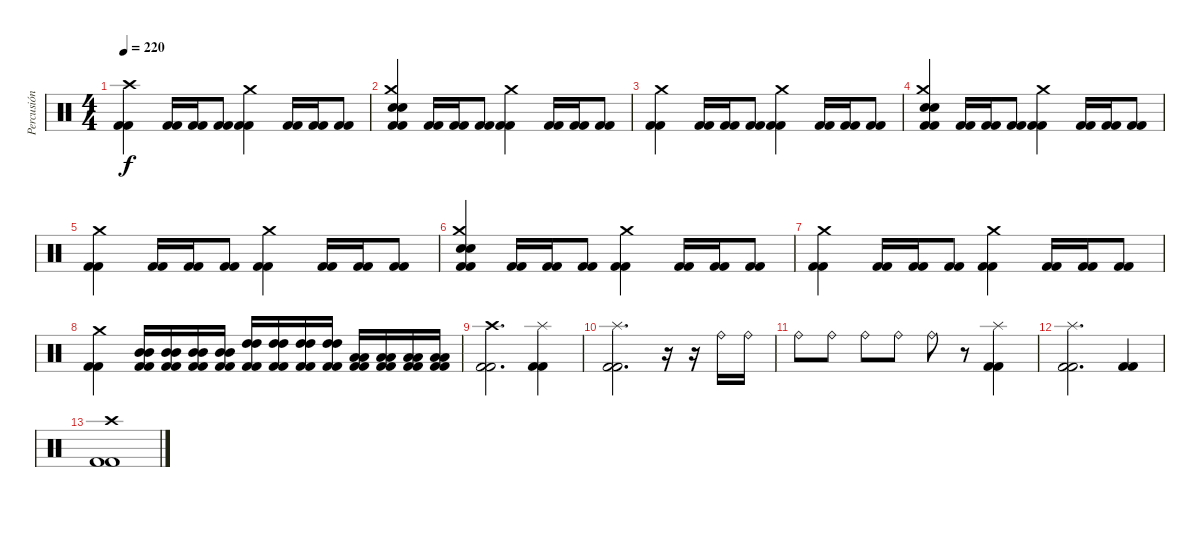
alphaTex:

\track ("Percusión" "Percusión") {instrument percussion}
\staff {score}
\articulation defaults
\ts (4 4)
\tempo 220
\clef neutral
\ks c
("Kick (hit) 2" "Kick (hit) 2" "Crash high (hit)").4{dy f} ("Kick (hit) 2" "Kick (hit) 2").16 ("Kick (hit) 2" "Kick (hit) 2").16 ("Kick (hit) 2" "Kick (hit) 2").8 ("Kick (hit) 2" "Kick (hit) 2" "Crash medium (hit)").4 ("Kick (hit) 2" "Kick (hit) 2").16 ("Kick (hit) 2" "Kick (hit) 2").16 ("Kick (hit) 2" "Kick (hit) 2").8 |
("Kick (hit) 2" "Kick (hit) 2" "Electric Snare (hit)" "Electric Snare (hit)" "Crash medium (hit)").4 ("Kick (hit) 2" "Kick (hit) 2").16 ("Kick (hit) 2" "Kick (hit) 2").16 ("Kick (hit) 2" "Kick (hit) 2").8 ("Kick (hit) 2" "Kick (hit) 2" "Crash medium (hit)").4 ("Kick (hit) 2" "Kick (hit) 2").16 ("Kick (hit) 2" "Kick (hit) 2").16 ("Kick (hit) 2" "Kick (hit) 2").8 |
("Kick (hit) 2" "Kick (hit) 2" "Crash medium (hit)").4 ("Kick (hit) 2" "Kick (hit) 2").16 ("Kick (hit) 2" "Kick (hit) 2").16 ("Kick (hit) 2" "Kick (hit) 2").8 ("Kick (hit) 2" "Kick (hit) 2" "Crash medium (hit)").4 ("Kick (hit) 2" "Kick (hit) 2").16 ("Kick (hit) 2" "Kick (hit) 2").16 ("Kick (hit) 2" "Kick (hit) 2").8 |
("Kick (hit) 2" "Kick (hit) 2" "Electric Snare (hit)" "Electric Snare (hit)" "Crash medium (hit)").4 ("Kick (hit) 2" "Kick (hit) 2").16 ("Kick (hit) 2" "Kick (hit) 2").16 ("Kick (hit) 2" "Kick (hit) 2").8 ("Kick (hit) 2" "Kick (hit) 2" "Crash medium (hit)").4 ("Kick (hit) 2" "Kick (hit) 2").16 ("Kick (hit) 2" "Kick (hit) 2").16 ("Kick (hit) 2" "Kick (hit) 2").8 |
("Kick (hit) 2" "Kick (hit) 2" "Crash medium (hit)").4 ("Kick (hit) 2" "Kick (hit) 2").16 ("Kick (hit) 2" "Kick (hit) 2").16 ("Kick (hit) 2" "Kick (hit) 2").8 ("Kick (hit) 2" "Kick (hit) 2" "Crash medium (hit)").4 ("Kick (hit) 2" "Kick (hit) 2").16 ("Kick (hit) 2" "Kick (hit) 2").16 ("Kick (hit) 2" "Kick (hit) 2").8 |
("Kick (hit) 2" "Kick (hit) 2" "Electric Snare (hit)" "Electric Snare (hit)" "Crash medium (hit)").4 ("Kick (hit) 2" "Kick (hit) 2").16 ("Kick (hit) 2" "Kick (hit) 2").16 ("Kick (hit) 2" "Kick (hit) 2").8 ("Kick (hit) 2" "Kick (hit) 2" "Crash medium (hit)").4 ("Kick (hit) 2" "Kick (hit) 2").16 ("Kick (hit) 2" "Kick (hit) 2").16 ("Kick (hit) 2" "Kick (hit) 2").8 |
("Kick (hit) 2" "Kick (hit) 2" "Crash medium (hit)").4 ("Kick (hit) 2" "Kick (hit) 2").16 ("Kick (hit) 2" "Kick (hit) 2").16 ("Kick (hit) 2" "Kick (hit) 2").8 ("Kick (hit) 2" "Kick (hit) 2" "Crash medium (hit)").4 ("Kick (hit) 2" "Kick (hit) 2").16 ("Kick (hit) 2" "Kick (hit) 2").16 ("Kick (hit) 2" "Kick (hit) 2").8 |
("Kick (hit) 2" "Kick (hit) 2" "Crash medium (hit)").4 ("Kick (hit) 2" "Kick (hit) 2" "Mid Tom (hit)" "Mid Tom (hit)").16 ("Kick (hit) 2" "Kick (hit) 2" "Mid Tom (hit)" "Mid Tom (hit)").16 ("Kick (hit) 2" "Kick (hit) 2" "Mid Tom (hit)" "Mid Tom (hit)").16 ("Kick (hit) 2" "Kick (hit) 2" "Mid Tom (hit)" "Mid Tom (hit)").16 ("Kick (hit) 2" "Kick (hit) 2" "High Tom (hit)" "High Tom (hit)").16 ("Kick (hit) 2" "Kick (hit) 2" "High Tom (hit)" "High Tom (hit)").16 ("Kick (hit) 2" "Kick (hit) 2" "High Tom (hit)" "High Tom (hit)").16 ("Kick (hit) 2" "Kick (hit) 2" "High Tom (hit)" "High Tom (hit)").16 ("Kick (hit) 2" "Kick (hit) 2" "Low Floor Tom (hit)" "Low Floor Tom (hit)").16 ("Kick (hit) 2" "Kick (hit) 2" "Low Floor Tom (hit)" "Low Floor Tom (hit)").16 ("Kick (hit) 2" "Kick (hit) 2" "Low Floor Tom (hit)" "Low Floor Tom (hit)").16 ("Kick (hit) 2" "Kick (hit) 2" "Low Floor Tom (hit)" "Low Floor Tom (hit)").16 |
("Kick (hit) 2" "Kick (hit) 2" "Crash high (hit)").2{d} ("Kick (hit) 2" "Kick (hit) 2" "Splash (hit)").4 |
("Kick (hit) 2" "Kick (hit) 2" "Splash (hit)").2{d} r.16 r.16 "Ride (bell)".16 "Ride (bell)".16 |
"Ride (bell)".8 "Ride (bell)".8 "Ride (bell)".8 "Ride (bell)".8 "Ride (bell)".8 r.8 ("Kick (hit) 2" "Kick (hit) 2" "Splash (hit)").4 |
("Kick (hit) 2" "Kick (hit) 2" "Splash (hit)").2{d} ("Kick (hit) 2" "Kick (hit) 2").4 |
("Kick (hit) 2" "Kick (hit) 2" "Crash high (hit)").1
